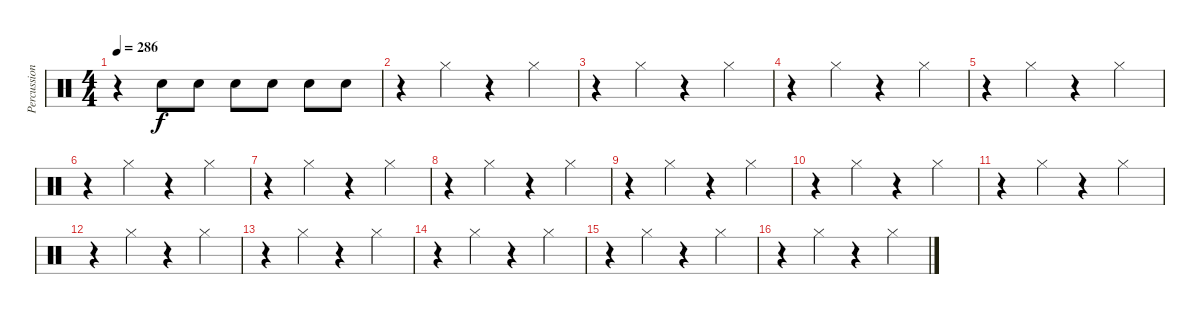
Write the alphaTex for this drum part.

\track ("Percussions" "Percussion") {instrument percussion}
\staff {score}
\articulation defaults
\ts (4 4)
\tempo 286
\clef neutral
\ks c
r.4{dy f} "Electric Snare (hit)".8 "Electric Snare (hit)".8 "Electric Snare (hit)".8 "Electric Snare (hit)".8 "Electric Snare (hit)".8 "Electric Snare (hit)".8 |
r.4 "Hi-Hat (closed)".4 r.4 "Hi-Hat (closed)".4 |
r.4 "Hi-Hat (closed)".4 r.4 "Hi-Hat (closed)".4 |
r.4 "Hi-Hat (closed)".4 r.4 "Hi-Hat (closed)".4 |
r.4 "Hi-Hat (closed)".4 r.4 "Hi-Hat (closed)".4 |
r.4 "Hi-Hat (closed)".4 r.4 "Hi-Hat (closed)".4 |
r.4 "Hi-Hat (closed)".4 r.4 "Hi-Hat (closed)".4 |
r.4 "Hi-Hat (closed)".4 r.4 "Hi-Hat (closed)".4 |
r.4 "Hi-Hat (closed)".4 r.4 "Hi-Hat (closed)".4 |
r.4 "Hi-Hat (closed)".4 r.4 "Hi-Hat (closed)".4 |
r.4 "Hi-Hat (closed)".4 r.4 "Hi-Hat (closed)".4 |
r.4 "Hi-Hat (closed)".4 r.4 "Hi-Hat (closed)".4 |
r.4 "Hi-Hat (closed)".4 r.4 "Hi-Hat (closed)".4 |
r.4 "Hi-Hat (closed)".4 r.4 "Hi-Hat (closed)".4 |
r.4 "Hi-Hat (closed)".4 r.4 "Hi-Hat (closed)".4 |
r.4 "Hi-Hat (closed)".4 r.4 "Hi-Hat (closed)".4
